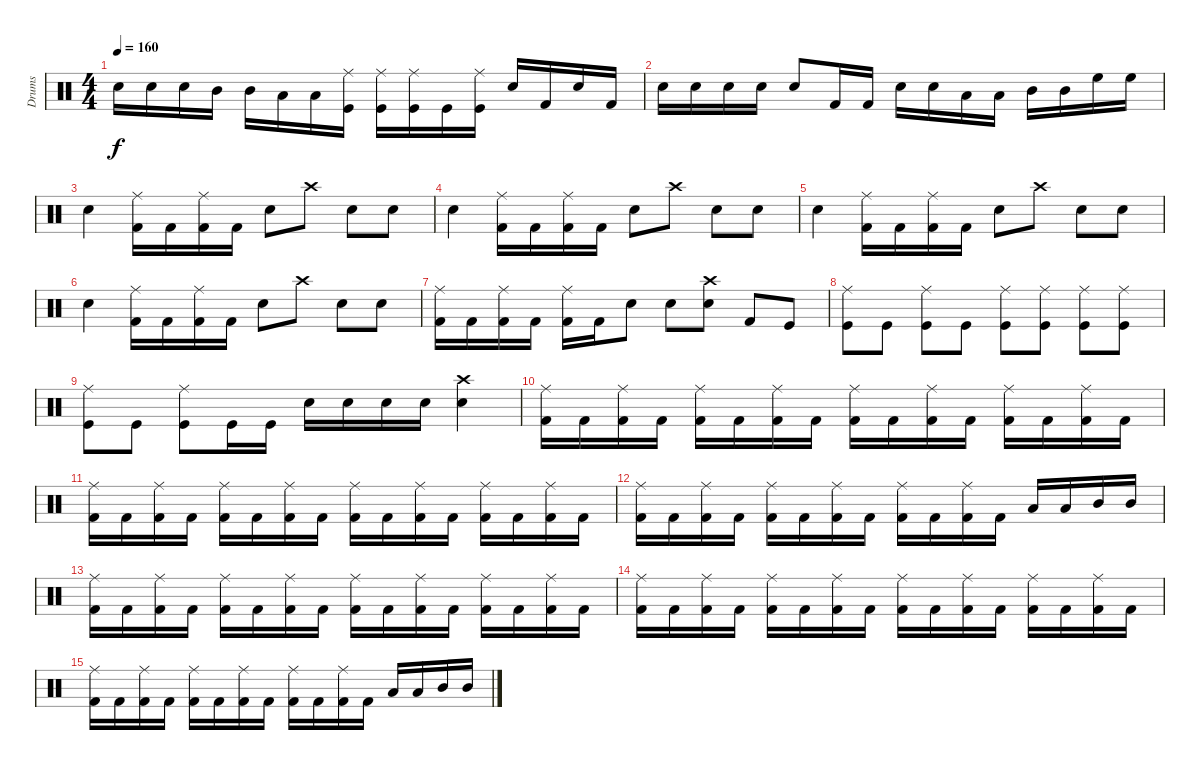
\track ("Drums" "Drums") {instrument percussion}
\staff {score}
\articulation defaults
\ts (4 4)
\tempo 160
\clef neutral
\ks c "Electric Snare (hit)".16{dy f} "Electric Snare (hit)".16 "Electric Snare (hit)".16 "Mid Tom (hit)".16 "Mid Tom (hit)".16 "Low Tom (hit)".16 "Low Tom (hit)".16
("Ride (middle)" "Kick (hit)").16 ("Ride (middle)" "Kick (hit)").16 ("Ride (middle)" "Kick (hit)").16 "Kick (hit)".16 ("Ride (middle)" "Kick (hit)").16 "Electric Snare (hit)".16 "Kick (hit) 2".16 "Electric Snare (hit)".16 "Kick (hit) 2".16 |
"Electric Snare (hit)".16 "Electric Snare (hit)".16 "Electric Snare (hit)".16 "Electric Snare (hit)".16 "Electric Snare (hit)".8 "Kick (hit) 2".16 "Kick (hit) 2".16 "Electric Snare (hit)".16 "Electric Snare (hit)".16 "Low Tom (hit)".16 "Low Tom (hit)".16 "Mid Tom (hit)".16 "Mid Tom (hit)".16 "High Floor Tom (hit)".16 "High Floor Tom (hit)".16 |
"Electric Snare (hit)".4 ("Ride (middle)" "Kick (hit) 2").16 "Kick (hit) 2".16 ("Ride (middle)" "Kick (hit) 2").16 "Kick (hit) 2".16 "Electric Snare (hit)".8 "Crash high (hit)".8 "Electric Snare (hit)".8 "Electric Snare (hit)".8 |
"Electric Snare (hit)".4 ("Ride (middle)" "Kick (hit) 2").16 "Kick (hit) 2".16 ("Ride (middle)" "Kick (hit) 2").16 "Kick (hit) 2".16 "Electric Snare (hit)".8 "Crash high (hit)".8 "Electric Snare (hit)".8 "Electric Snare (hit)".8 |
"Electric Snare (hit)".4 ("Ride (middle)" "Kick (hit) 2").16 "Kick (hit) 2".16 ("Ride (middle)" "Kick (hit) 2").16 "Kick (hit) 2".16 "Electric Snare (hit)".8 "Crash high (hit)".8 "Electric Snare (hit)".8 "Electric Snare (hit)".8 |
"Electric Snare (hit)".4 ("Ride (middle)" "Kick (hit) 2").16 "Kick (hit) 2".16 ("Ride (middle)" "Kick (hit) 2").16 "Kick (hit) 2".16 "Electric Snare (hit)".8 "Crash high (hit)".8 "Electric Snare (hit)".8 "Electric Snare (hit)".8 |
("Ride (middle)" "Kick (hit) 2").16 "Kick (hit) 2".16 ("Ride (middle)" "Kick (hit) 2").16 "Kick (hit) 2".16 ("Ride (middle)" "Kick (hit) 2").16 "Kick (hit) 2".16 "Electric Snare (hit)".8 "Electric Snare (hit)".8 ("Electric Snare (hit)" "Crash high (hit)").8 "Kick (hit) 2".8 "Kick (hit)".8 |
("Ride (middle)" "Kick (hit)").8 "Kick (hit)".8 ("Ride (middle)" "Kick (hit)").8 "Kick (hit)".8 ("Ride (middle)" "Kick (hit)").8 ("Ride (middle)" "Kick (hit)").8 ("Ride (middle)" "Kick (hit)").8 ("Ride (middle)" "Kick (hit)").8 |
("Ride (middle)" "Kick (hit)").8 "Kick (hit)".8 ("Ride (middle)" "Kick (hit)").8 "Kick (hit)".16 "Kick (hit)".16 "Electric Snare (hit)".16 "Electric Snare (hit)".16 "Electric Snare (hit)".16 "Electric Snare (hit)".16 ("Electric Snare (hit)" "Crash high (hit)").4 |
("Ride (middle)" "Kick (hit) 2").16{volume 6} "Kick (hit) 2".16 ("Ride (middle)" "Kick (hit) 2").16 "Kick (hit) 2".16 ("Ride (middle)" "Kick (hit) 2").16 "Kick (hit) 2".16 ("Ride (middle)" "Kick (hit) 2").16 "Kick (hit) 2".16 ("Ride (middle)" "Kick (hit) 2").16 "Kick (hit) 2".16 ("Ride (middle)" "Kick (hit) 2").16 "Kick (hit) 2".16 ("Ride (middle)" "Kick (hit) 2").16 "Kick (hit) 2".16 ("Ride (middle)" "Kick (hit) 2").16 "Kick (hit) 2".16 |
("Ride (middle)" "Kick (hit) 2").16 "Kick (hit) 2".16 ("Ride (middle)" "Kick (hit) 2").16 "Kick (hit) 2".16 ("Ride (middle)" "Kick (hit) 2").16 "Kick (hit) 2".16 ("Ride (middle)" "Kick (hit) 2").16 "Kick (hit) 2".16 ("Ride (middle)" "Kick (hit) 2").16 "Kick (hit) 2".16 ("Ride (middle)" "Kick (hit) 2").16 "Kick (hit) 2".16 ("Ride (middle)" "Kick (hit) 2").16 "Kick (hit) 2".16 ("Ride (middle)" "Kick (hit) 2").16 "Kick (hit) 2".16 |
("Ride (middle)" "Kick (hit) 2").16 "Kick (hit) 2".16 ("Ride (middle)" "Kick (hit) 2").16 "Kick (hit) 2".16 ("Ride (middle)" "Kick (hit) 2").16 "Kick (hit) 2".16 ("Ride (middle)" "Kick (hit) 2").16 "Kick (hit) 2".16 ("Ride (middle)" "Kick (hit) 2").16 "Kick (hit) 2".16 ("Ride (middle)" "Kick (hit) 2").16 "Kick (hit) 2".16 "Low Tom (hit)".16 "Low Tom (hit)".16 "Mid Tom (hit)".16 "Mid Tom (hit)".16 |
("Ride (middle)" "Kick (hit) 2").16{volume 3} "Kick (hit) 2".16 ("Ride (middle)" "Kick (hit) 2").16 "Kick (hit) 2".16 ("Ride (middle)" "Kick (hit) 2").16 "Kick (hit) 2".16 ("Ride (middle)" "Kick (hit) 2").16 "Kick (hit) 2".16 ("Ride (middle)" "Kick (hit) 2").16 "Kick (hit) 2".16 ("Ride (middle)" "Kick (hit) 2").16 "Kick (hit) 2".16 ("Ride (middle)" "Kick (hit) 2").16 "Kick (hit) 2".16 ("Ride (middle)" "Kick (hit) 2").16 "Kick (hit) 2".16 |
("Ride (middle)" "Kick (hit) 2").16{volume 0} "Kick (hit) 2".16 ("Ride (middle)" "Kick (hit) 2").16 "Kick (hit) 2".16 ("Ride (middle)" "Kick (hit) 2").16 "Kick (hit) 2".16 ("Ride (middle)" "Kick (hit) 2").16 "Kick (hit) 2".16 ("Ride (middle)" "Kick (hit) 2").16 "Kick (hit) 2".16 ("Ride (middle)" "Kick (hit) 2").16 "Kick (hit) 2".16 ("Ride (middle)" "Kick (hit) 2").16 "Kick (hit) 2".16 ("Ride (middle)" "Kick (hit) 2").16 "Kick (hit) 2".16 |
("Ride (middle)" "Kick (hit) 2").16 "Kick (hit) 2".16 ("Ride (middle)" "Kick (hit) 2").16 "Kick (hit) 2".16 ("Ride (middle)" "Kick (hit) 2").16 "Kick (hit) 2".16 ("Ride (middle)" "Kick (hit) 2").16 "Kick (hit) 2".16 ("Ride (middle)" "Kick (hit) 2").16 "Kick (hit) 2".16 ("Ride (middle)" "Kick (hit) 2").16 "Kick (hit) 2".16 "Low Tom (hit)".16 "Low Tom (hit)".16 "Mid Tom (hit)".16 "Mid Tom (hit)".16
